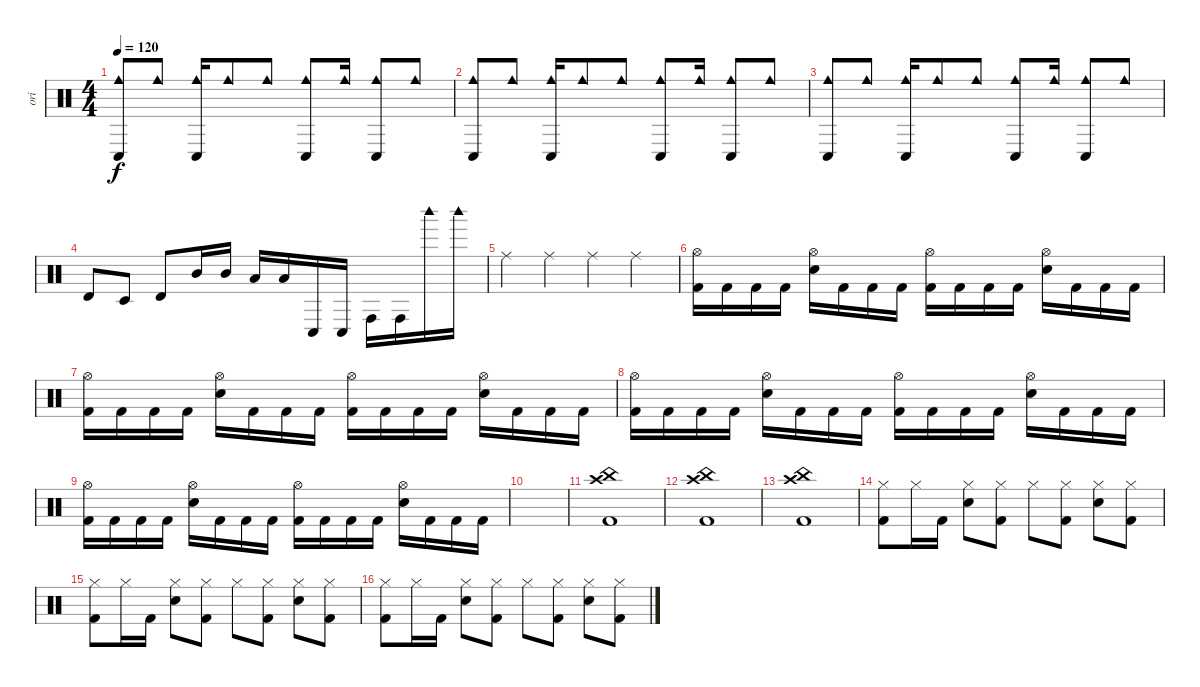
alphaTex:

\track ("ori" "ori") {instrument percussion}
\staff {score}
\articulation defaults
\ts (4 4)
\tempo 120
\clef neutral
\ks c
("Conga low (hit)" "Cowbell medium (hit)").8{dy f} "Cowbell medium (hit)".8 ("Conga low (hit)" "Cowbell medium (hit)").16 "Cowbell medium (hit)".8 "Cowbell medium (hit)".8 ("Conga low (hit)" "Cowbell medium (hit)").8 "Cowbell medium (hit)".16 ("Conga low (hit)" "Cowbell medium (hit)").8 "Cowbell medium (hit)".8 |
("Conga low (hit)" "Cowbell medium (hit)").8 "Cowbell medium (hit)".8 ("Conga low (hit)" "Cowbell medium (hit)").16 "Cowbell medium (hit)".8 "Cowbell medium (hit)".8 ("Conga low (hit)" "Cowbell medium (hit)").8 "Cowbell medium (hit)".16 ("Conga low (hit)" "Cowbell medium (hit)").8 "Cowbell medium (hit)".8 |
("Conga low (hit)" "Cowbell medium (hit)").8 "Cowbell medium (hit)".8 ("Conga low (hit)" "Cowbell medium (hit)").16 "Cowbell medium (hit)".8 "Cowbell medium (hit)".8 ("Conga low (hit)" "Cowbell medium (hit)").8 "Cowbell medium (hit)".16 ("Conga low (hit)" "Cowbell medium (hit)").8 "Cowbell medium (hit)".8 |
"Timbale high (hit)".8 "Timbale low (hit)".8 "Timbale high (hit)".8 "Mid Tom (hit)".16 "Mid Tom (hit)".16 "Low Tom (hit)".16 "Low Tom (hit)".16 "Conga low (hit)".16 "Conga low (hit)".16 "Conga high (hit)".16 "Conga high (hit)".16 "Woodblock high (hit)".16 "Woodblock high (hit)".16 |
"Ride (middle)".4 "Ride (middle)".4 "Ride (middle)".4 "Ride (middle)".4 |
("Kick (hit) 2" "Hi-Hat (open)").16 "Kick (hit) 2".16 "Kick (hit) 2".16 "Kick (hit) 2".16 ("Electric Snare (hit)" "Hi-Hat (open)").16 "Kick (hit) 2".16 "Kick (hit) 2".16 "Kick (hit) 2".16 ("Kick (hit) 2" "Hi-Hat (open)").16 "Kick (hit) 2".16 "Kick (hit) 2".16 "Kick (hit) 2".16 ("Electric Snare (hit)" "Hi-Hat (open)").16 "Kick (hit) 2".16 "Kick (hit) 2".16 "Kick (hit) 2".16 |
("Kick (hit) 2" "Hi-Hat (open)").16 "Kick (hit) 2".16 "Kick (hit) 2".16 "Kick (hit) 2".16 ("Electric Snare (hit)" "Hi-Hat (open)").16 "Kick (hit) 2".16 "Kick (hit) 2".16 "Kick (hit) 2".16 ("Kick (hit) 2" "Hi-Hat (open)").16 "Kick (hit) 2".16 "Kick (hit) 2".16 "Kick (hit) 2".16 ("Electric Snare (hit)" "Hi-Hat (open)").16 "Kick (hit) 2".16 "Kick (hit) 2".16 "Kick (hit) 2".16 |
("Kick (hit) 2" "Hi-Hat (open)").16 "Kick (hit) 2".16 "Kick (hit) 2".16 "Kick (hit) 2".16 ("Electric Snare (hit)" "Hi-Hat (open)").16 "Kick (hit) 2".16 "Kick (hit) 2".16 "Kick (hit) 2".16 ("Kick (hit) 2" "Hi-Hat (open)").16 "Kick (hit) 2".16 "Kick (hit) 2".16 "Kick (hit) 2".16 ("Electric Snare (hit)" "Hi-Hat (open)").16 "Kick (hit) 2".16 "Kick (hit) 2".16 "Kick (hit) 2".16 |
("Kick (hit) 2" "Hi-Hat (open)").16 "Kick (hit) 2".16 "Kick (hit) 2".16 "Kick (hit) 2".16 ("Electric Snare (hit)" "Hi-Hat (open)").16 "Kick (hit) 2".16 "Kick (hit) 2".16 "Kick (hit) 2".16 ("Kick (hit) 2" "Hi-Hat (open)").16 "Kick (hit) 2".16 "Kick (hit) 2".16 "Kick (hit) 2".16 ("Electric Snare (hit)" "Hi-Hat (open)").16 "Kick (hit) 2".16 "Kick (hit) 2".16 "Kick (hit) 2".16 |
|
("Crash high (hit)" "China (hit)" "Kick (hit) 2").1 |
("Crash high (hit)" "China (hit)" "Kick (hit) 2").1 |
("Crash high (hit)" "China (hit)" "Kick (hit) 2").1 |
("Kick (hit) 2" "Hi-Hat (closed)").8 "Hi-Hat (closed)".16 "Kick (hit) 2".16 ("Electric Snare (hit)" "Hi-Hat (closed)").8 ("Kick (hit) 2" "Hi-Hat (closed)").8 "Hi-Hat (closed)".8 ("Kick (hit) 2" "Hi-Hat (closed)").8 ("Electric Snare (hit)" "Hi-Hat (closed)").8 ("Kick (hit) 2" "Hi-Hat (closed)").8 |
("Kick (hit) 2" "Hi-Hat (closed)").8 "Hi-Hat (closed)".16 "Kick (hit) 2".16 ("Electric Snare (hit)" "Hi-Hat (closed)").8 ("Kick (hit) 2" "Hi-Hat (closed)").8 "Hi-Hat (closed)".8 ("Kick (hit) 2" "Hi-Hat (closed)").8 ("Electric Snare (hit)" "Hi-Hat (closed)").8 ("Kick (hit) 2" "Hi-Hat (closed)").8 |
("Kick (hit) 2" "Hi-Hat (closed)").8 "Hi-Hat (closed)".16 "Kick (hit) 2".16 ("Electric Snare (hit)" "Hi-Hat (closed)").8 ("Kick (hit) 2" "Hi-Hat (closed)").8 "Hi-Hat (closed)".8 ("Kick (hit) 2" "Hi-Hat (closed)").8 ("Electric Snare (hit)" "Hi-Hat (closed)").8 ("Kick (hit) 2" "Hi-Hat (closed)").8
